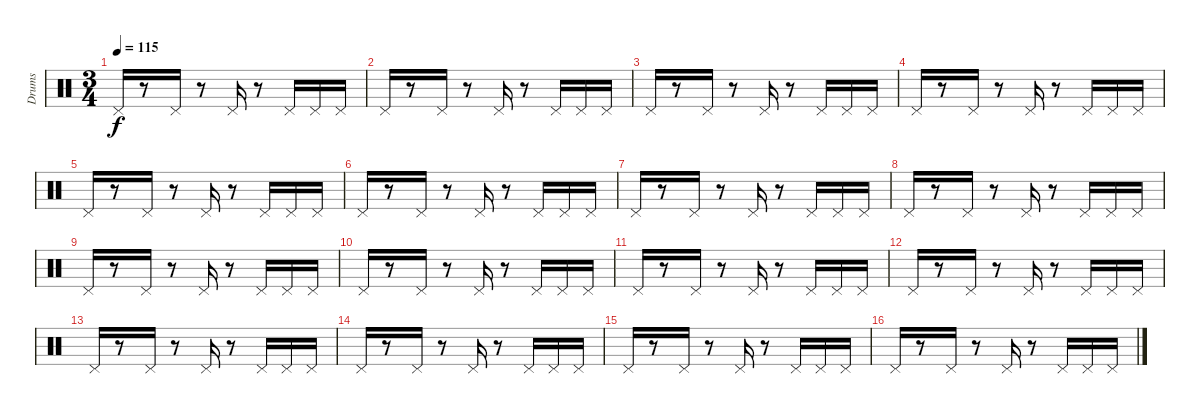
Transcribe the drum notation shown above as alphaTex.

\track ("Drums" "Drums") {instrument percussion}
\staff {score}
\articulation defaults
\ts (3 4)
\tempo 115
\clef neutral
\ks c "Pedal Hi-Hat (hit)".16{dy f}
r.8 "Pedal Hi-Hat (hit)".16 r.8 "Pedal Hi-Hat (hit)".16 r.8 "Pedal Hi-Hat (hit)".16 "Pedal Hi-Hat (hit)".16 "Pedal Hi-Hat (hit)".16 |
"Pedal Hi-Hat (hit)".16 r.8 "Pedal Hi-Hat (hit)".16 r.8 "Pedal Hi-Hat (hit)".16 r.8 "Pedal Hi-Hat (hit)".16 "Pedal Hi-Hat (hit)".16 "Pedal Hi-Hat (hit)".16 |
"Pedal Hi-Hat (hit)".16 r.8 "Pedal Hi-Hat (hit)".16 r.8 "Pedal Hi-Hat (hit)".16 r.8 "Pedal Hi-Hat (hit)".16 "Pedal Hi-Hat (hit)".16 "Pedal Hi-Hat (hit)".16 |
"Pedal Hi-Hat (hit)".16 r.8 "Pedal Hi-Hat (hit)".16 r.8 "Pedal Hi-Hat (hit)".16 r.8 "Pedal Hi-Hat (hit)".16 "Pedal Hi-Hat (hit)".16 "Pedal Hi-Hat (hit)".16 |
"Pedal Hi-Hat (hit)".16 r.8 "Pedal Hi-Hat (hit)".16 r.8 "Pedal Hi-Hat (hit)".16 r.8 "Pedal Hi-Hat (hit)".16 "Pedal Hi-Hat (hit)".16 "Pedal Hi-Hat (hit)".16 |
"Pedal Hi-Hat (hit)".16 r.8 "Pedal Hi-Hat (hit)".16 r.8 "Pedal Hi-Hat (hit)".16 r.8 "Pedal Hi-Hat (hit)".16 "Pedal Hi-Hat (hit)".16 "Pedal Hi-Hat (hit)".16 |
"Pedal Hi-Hat (hit)".16 r.8 "Pedal Hi-Hat (hit)".16 r.8 "Pedal Hi-Hat (hit)".16 r.8 "Pedal Hi-Hat (hit)".16 "Pedal Hi-Hat (hit)".16 "Pedal Hi-Hat (hit)".16 |
"Pedal Hi-Hat (hit)".16 r.8 "Pedal Hi-Hat (hit)".16 r.8 "Pedal Hi-Hat (hit)".16 r.8 "Pedal Hi-Hat (hit)".16 "Pedal Hi-Hat (hit)".16 "Pedal Hi-Hat (hit)".16 |
"Pedal Hi-Hat (hit)".16 r.8 "Pedal Hi-Hat (hit)".16 r.8 "Pedal Hi-Hat (hit)".16 r.8 "Pedal Hi-Hat (hit)".16 "Pedal Hi-Hat (hit)".16 "Pedal Hi-Hat (hit)".16 |
"Pedal Hi-Hat (hit)".16 r.8 "Pedal Hi-Hat (hit)".16 r.8 "Pedal Hi-Hat (hit)".16 r.8 "Pedal Hi-Hat (hit)".16 "Pedal Hi-Hat (hit)".16 "Pedal Hi-Hat (hit)".16 |
"Pedal Hi-Hat (hit)".16 r.8 "Pedal Hi-Hat (hit)".16 r.8 "Pedal Hi-Hat (hit)".16 r.8 "Pedal Hi-Hat (hit)".16 "Pedal Hi-Hat (hit)".16 "Pedal Hi-Hat (hit)".16 |
"Pedal Hi-Hat (hit)".16 r.8 "Pedal Hi-Hat (hit)".16 r.8 "Pedal Hi-Hat (hit)".16 r.8 "Pedal Hi-Hat (hit)".16 "Pedal Hi-Hat (hit)".16 "Pedal Hi-Hat (hit)".16 |
"Pedal Hi-Hat (hit)".16 r.8 "Pedal Hi-Hat (hit)".16 r.8 "Pedal Hi-Hat (hit)".16 r.8 "Pedal Hi-Hat (hit)".16 "Pedal Hi-Hat (hit)".16 "Pedal Hi-Hat (hit)".16 |
"Pedal Hi-Hat (hit)".16 r.8 "Pedal Hi-Hat (hit)".16 r.8 "Pedal Hi-Hat (hit)".16 r.8 "Pedal Hi-Hat (hit)".16 "Pedal Hi-Hat (hit)".16 "Pedal Hi-Hat (hit)".16 |
"Pedal Hi-Hat (hit)".16 r.8 "Pedal Hi-Hat (hit)".16 r.8 "Pedal Hi-Hat (hit)".16 r.8 "Pedal Hi-Hat (hit)".16 "Pedal Hi-Hat (hit)".16 "Pedal Hi-Hat (hit)".16 |
"Pedal Hi-Hat (hit)".16 r.8 "Pedal Hi-Hat (hit)".16 r.8 "Pedal Hi-Hat (hit)".16 r.8 "Pedal Hi-Hat (hit)".16 "Pedal Hi-Hat (hit)".16 "Pedal Hi-Hat (hit)".16
